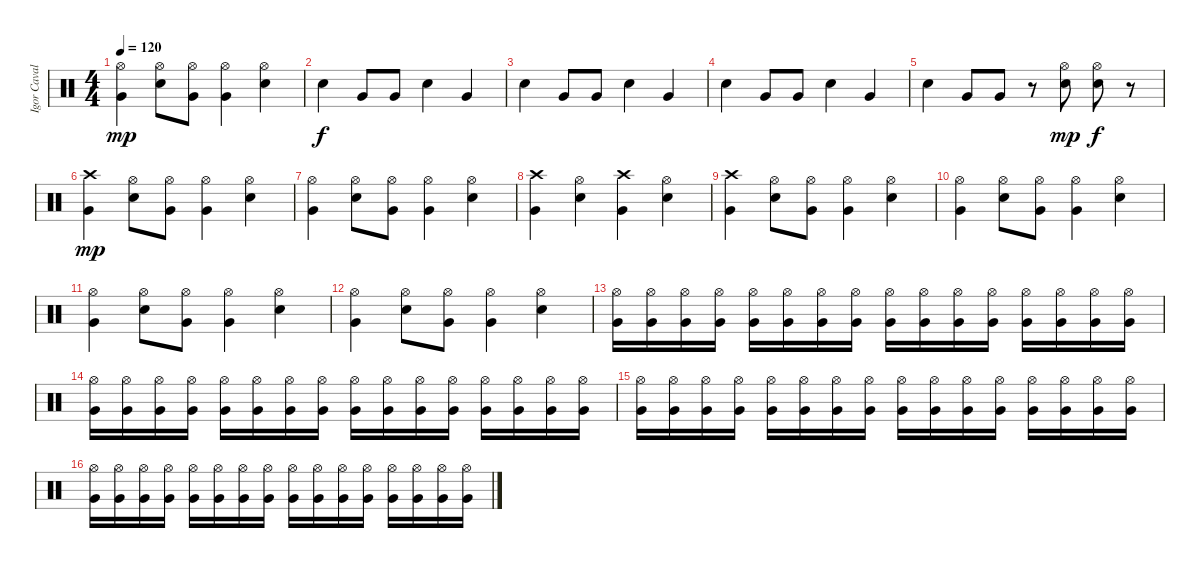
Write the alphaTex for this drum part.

\track ("Igor Cavalera" "Igor Caval") {instrument percussion}
\staff {score}
\articulation defaults
\ts (4 4)
\tempo 120
\clef neutral
\ks c
("Hi-Hat (open)" "Very Low Tom (hit)").4{dy mp} ("Hi-Hat (open)" "Snare (hit) 2").8 ("Hi-Hat (open)" "Very Low Tom (hit)").8 ("Hi-Hat (open)" "Very Low Tom (hit)").4 ("Hi-Hat (open)" "Snare (hit) 2").4 |
"Snare (hit) 2".4{dy f} "Very Low Tom (hit)".8 "Very Low Tom (hit)".8 "Snare (hit) 2".4 "Very Low Tom (hit)".4 |
"Snare (hit) 2".4 "Very Low Tom (hit)".8 "Very Low Tom (hit)".8 "Snare (hit) 2".4 "Very Low Tom (hit)".4 |
"Snare (hit) 2".4 "Very Low Tom (hit)".8 "Very Low Tom (hit)".8 "Snare (hit) 2".4 "Very Low Tom (hit)".4 |
"Snare (hit) 2".4 "Very Low Tom (hit)".8 "Very Low Tom (hit)".8 r.8 ("Hi-Hat (open)" "Snare (hit) 2").8{dy mp} ("Hi-Hat (open)" "Snare (hit) 2").8{dy f} r.8 |
("Crash high (hit)" "Very Low Tom (hit)").4{dy mp} ("Hi-Hat (open)" "Snare (hit) 2").8 ("Hi-Hat (open)" "Very Low Tom (hit)").8 ("Hi-Hat (open)" "Very Low Tom (hit)").4 ("Hi-Hat (open)" "Snare (hit) 2").4 |
("Hi-Hat (open)" "Very Low Tom (hit)").4 ("Hi-Hat (open)" "Snare (hit) 2").8 ("Hi-Hat (open)" "Very Low Tom (hit)").8 ("Hi-Hat (open)" "Very Low Tom (hit)").4 ("Hi-Hat (open)" "Snare (hit) 2").4 |
("Crash high (hit)" "Very Low Tom (hit)").4 ("Hi-Hat (open)" "Snare (hit) 2").4 ("Crash high (hit)" "Very Low Tom (hit)").4 ("Hi-Hat (open)" "Snare (hit) 2").4 |
("Crash high (hit)" "Very Low Tom (hit)").4 ("Hi-Hat (open)" "Snare (hit) 2").8 ("Hi-Hat (open)" "Very Low Tom (hit)").8 ("Hi-Hat (open)" "Very Low Tom (hit)").4 ("Hi-Hat (open)" "Snare (hit) 2").4 |
("Hi-Hat (open)" "Very Low Tom (hit)").4 ("Hi-Hat (open)" "Snare (hit) 2").8 ("Hi-Hat (open)" "Very Low Tom (hit)").8 ("Hi-Hat (open)" "Very Low Tom (hit)").4 ("Hi-Hat (open)" "Snare (hit) 2").4 |
("Hi-Hat (open)" "Very Low Tom (hit)").4 ("Hi-Hat (open)" "Snare (hit) 2").8 ("Hi-Hat (open)" "Very Low Tom (hit)").8 ("Hi-Hat (open)" "Very Low Tom (hit)").4 ("Hi-Hat (open)" "Snare (hit) 2").4 |
("Hi-Hat (open)" "Very Low Tom (hit)").4 ("Hi-Hat (open)" "Snare (hit) 2").8 ("Hi-Hat (open)" "Very Low Tom (hit)").8 ("Hi-Hat (open)" "Very Low Tom (hit)").4 ("Hi-Hat (open)" "Snare (hit) 2").4 |
("Hi-Hat (open)" "Very Low Tom (hit)").16 ("Hi-Hat (open)" "Very Low Tom (hit)").16 ("Hi-Hat (open)" "Very Low Tom (hit)").16 ("Hi-Hat (open)" "Very Low Tom (hit)").16 ("Hi-Hat (open)" "Very Low Tom (hit)").16 ("Hi-Hat (open)" "Very Low Tom (hit)").16 ("Hi-Hat (open)" "Very Low Tom (hit)").16 ("Hi-Hat (open)" "Very Low Tom (hit)").16 ("Hi-Hat (open)" "Very Low Tom (hit)").16 ("Hi-Hat (open)" "Very Low Tom (hit)").16 ("Hi-Hat (open)" "Very Low Tom (hit)").16 ("Hi-Hat (open)" "Very Low Tom (hit)").16 ("Hi-Hat (open)" "Very Low Tom (hit)").16 ("Hi-Hat (open)" "Very Low Tom (hit)").16 ("Hi-Hat (open)" "Very Low Tom (hit)").16 ("Hi-Hat (open)" "Very Low Tom (hit)").16 |
("Hi-Hat (open)" "Very Low Tom (hit)").16 ("Hi-Hat (open)" "Very Low Tom (hit)").16 ("Hi-Hat (open)" "Very Low Tom (hit)").16 ("Hi-Hat (open)" "Very Low Tom (hit)").16 ("Hi-Hat (open)" "Very Low Tom (hit)").16 ("Hi-Hat (open)" "Very Low Tom (hit)").16 ("Hi-Hat (open)" "Very Low Tom (hit)").16 ("Hi-Hat (open)" "Very Low Tom (hit)").16 ("Hi-Hat (open)" "Very Low Tom (hit)").16 ("Hi-Hat (open)" "Very Low Tom (hit)").16 ("Hi-Hat (open)" "Very Low Tom (hit)").16 ("Hi-Hat (open)" "Very Low Tom (hit)").16 ("Hi-Hat (open)" "Very Low Tom (hit)").16 ("Hi-Hat (open)" "Very Low Tom (hit)").16 ("Hi-Hat (open)" "Very Low Tom (hit)").16 ("Hi-Hat (open)" "Very Low Tom (hit)").16 |
("Hi-Hat (open)" "Very Low Tom (hit)").16 ("Hi-Hat (open)" "Very Low Tom (hit)").16 ("Hi-Hat (open)" "Very Low Tom (hit)").16 ("Hi-Hat (open)" "Very Low Tom (hit)").16 ("Hi-Hat (open)" "Very Low Tom (hit)").16 ("Hi-Hat (open)" "Very Low Tom (hit)").16 ("Hi-Hat (open)" "Very Low Tom (hit)").16 ("Hi-Hat (open)" "Very Low Tom (hit)").16 ("Hi-Hat (open)" "Very Low Tom (hit)").16 ("Hi-Hat (open)" "Very Low Tom (hit)").16 ("Hi-Hat (open)" "Very Low Tom (hit)").16 ("Hi-Hat (open)" "Very Low Tom (hit)").16 ("Hi-Hat (open)" "Very Low Tom (hit)").16 ("Hi-Hat (open)" "Very Low Tom (hit)").16 ("Hi-Hat (open)" "Very Low Tom (hit)").16 ("Hi-Hat (open)" "Very Low Tom (hit)").16 |
("Hi-Hat (open)" "Very Low Tom (hit)").16 ("Hi-Hat (open)" "Very Low Tom (hit)").16 ("Hi-Hat (open)" "Very Low Tom (hit)").16 ("Hi-Hat (open)" "Very Low Tom (hit)").16 ("Hi-Hat (open)" "Very Low Tom (hit)").16 ("Hi-Hat (open)" "Very Low Tom (hit)").16 ("Hi-Hat (open)" "Very Low Tom (hit)").16 ("Hi-Hat (open)" "Very Low Tom (hit)").16 ("Hi-Hat (open)" "Very Low Tom (hit)").16 ("Hi-Hat (open)" "Very Low Tom (hit)").16 ("Hi-Hat (open)" "Very Low Tom (hit)").16 ("Hi-Hat (open)" "Very Low Tom (hit)").16 ("Hi-Hat (open)" "Very Low Tom (hit)").16 ("Hi-Hat (open)" "Very Low Tom (hit)").16 ("Hi-Hat (open)" "Very Low Tom (hit)").16 ("Hi-Hat (open)" "Very Low Tom (hit)").16
